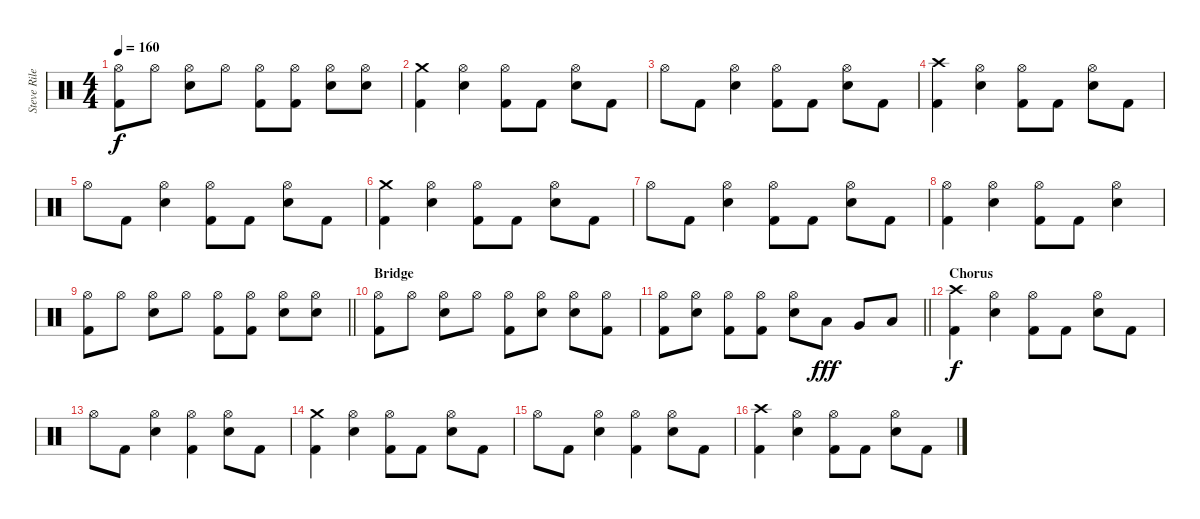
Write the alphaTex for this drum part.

\track ("Steve Riley" "Steve Rile") {instrument percussion}
\staff {score}
\articulation defaults
\ts (4 4)
\tempo 160
\clef neutral
\ks c
("Hi-Hat (open)" "Kick (hit) 2").8{dy f} "Hi-Hat (open)".8 ("Hi-Hat (open)" "Snare (hit) 2").8 "Hi-Hat (open)".8 ("Hi-Hat (open)" "Kick (hit) 2").8 ("Hi-Hat (open)" "Kick (hit) 2").8 ("Hi-Hat (open)" "Snare (hit) 2").8 ("Hi-Hat (open)" "Snare (hit) 2").8 |
("Crash medium (hit)" "Kick (hit) 2").4 ("Hi-Hat (open)" "Snare (hit) 2").4 ("Hi-Hat (open)" "Kick (hit) 2").8 "Kick (hit) 2".8 ("Hi-Hat (open)" "Snare (hit) 2").8 "Kick (hit) 2".8 |
"Hi-Hat (open)".8 "Kick (hit) 2".8 ("Hi-Hat (open)" "Snare (hit) 2").4 ("Hi-Hat (open)" "Kick (hit) 2").8 "Kick (hit) 2".8 ("Hi-Hat (open)" "Snare (hit) 2").8 "Kick (hit) 2".8 |
("Crash high (hit)" "Kick (hit) 2").4 ("Hi-Hat (open)" "Snare (hit) 2").4 ("Hi-Hat (open)" "Kick (hit) 2").8 "Kick (hit) 2".8 ("Hi-Hat (open)" "Snare (hit) 2").8 "Kick (hit) 2".8 |
"Hi-Hat (open)".8 "Kick (hit) 2".8 ("Hi-Hat (open)" "Snare (hit) 2").4 ("Hi-Hat (open)" "Kick (hit) 2").8 "Kick (hit) 2".8 ("Hi-Hat (open)" "Snare (hit) 2").8 "Kick (hit) 2".8 |
("Crash medium (hit)" "Kick (hit) 2").4 ("Hi-Hat (open)" "Snare (hit) 2").4 ("Hi-Hat (open)" "Kick (hit) 2").8 "Kick (hit) 2".8 ("Hi-Hat (open)" "Snare (hit) 2").8 "Kick (hit) 2".8 |
"Hi-Hat (open)".8 "Kick (hit) 2".8 ("Hi-Hat (open)" "Snare (hit) 2").4 ("Hi-Hat (open)" "Kick (hit) 2").8 "Kick (hit) 2".8 ("Hi-Hat (open)" "Snare (hit) 2").8 "Kick (hit) 2".8 |
("Hi-Hat (open)" "Kick (hit) 2").4 ("Hi-Hat (open)" "Snare (hit) 2").4 ("Hi-Hat (open)" "Kick (hit) 2").8 "Kick (hit) 2".8 ("Hi-Hat (open)" "Snare (hit) 2").4 |
\barLineRight lightlight
("Hi-Hat (open)" "Kick (hit) 2").8 "Hi-Hat (open)".8 ("Hi-Hat (open)" "Snare (hit) 2").8 "Hi-Hat (open)".8 ("Hi-Hat (open)" "Kick (hit) 2").8 ("Hi-Hat (open)" "Kick (hit) 2").8 ("Hi-Hat (open)" "Snare (hit) 2").8 ("Hi-Hat (open)" "Snare (hit) 2").8 |
\section ("" "Bridge")
("Hi-Hat (open)" "Kick (hit) 2").8 "Hi-Hat (open)".8 ("Hi-Hat (open)" "Snare (hit) 2").8 "Hi-Hat (open)".8 ("Hi-Hat (open)" "Kick (hit) 2").8 ("Hi-Hat (open)" "Snare (hit) 2").8 ("Hi-Hat (open)" "Snare (hit) 2").8 ("Hi-Hat (open)" "Kick (hit) 2").8 |
\barLineRight lightlight
("Hi-Hat (open)" "Kick (hit) 2").8 ("Hi-Hat (open)" "Snare (hit) 2").8 ("Hi-Hat (open)" "Kick (hit) 2").8 ("Hi-Hat (open)" "Kick (hit) 2").8 ("Hi-Hat (open)" "Snare (hit) 2").8 "Low Tom (hit)".8{dy fff} "Very Low Tom (hit)".8 "Low Floor Tom (hit)".8 |
\section ("" "Chorus")
("Crash high (hit)" "Kick (hit) 2").4{dy f} ("Hi-Hat (open)" "Snare (hit) 2").4 ("Hi-Hat (open)" "Kick (hit) 2").8 "Kick (hit) 2".8 ("Hi-Hat (open)" "Snare (hit) 2").8 "Kick (hit) 2".8 |
"Hi-Hat (open)".8 "Kick (hit) 2".8 ("Hi-Hat (open)" "Snare (hit) 2").4 ("Hi-Hat (open)" "Kick (hit) 2").4 ("Hi-Hat (open)" "Snare (hit) 2").8 "Kick (hit) 2".8 |
("Crash medium (hit)" "Kick (hit) 2").4 ("Hi-Hat (open)" "Snare (hit) 2").4 ("Hi-Hat (open)" "Kick (hit) 2").8 "Kick (hit) 2".8 ("Hi-Hat (open)" "Snare (hit) 2").8 "Kick (hit) 2".8 |
"Hi-Hat (open)".8 "Kick (hit) 2".8 ("Hi-Hat (open)" "Snare (hit) 2").4 ("Hi-Hat (open)" "Kick (hit) 2").4 ("Hi-Hat (open)" "Snare (hit) 2").8 "Kick (hit) 2".8 |
("Crash high (hit)" "Kick (hit) 2").4 ("Hi-Hat (open)" "Snare (hit) 2").4 ("Hi-Hat (open)" "Kick (hit) 2").8 "Kick (hit) 2".8 ("Hi-Hat (open)" "Snare (hit) 2").8 "Kick (hit) 2".8
